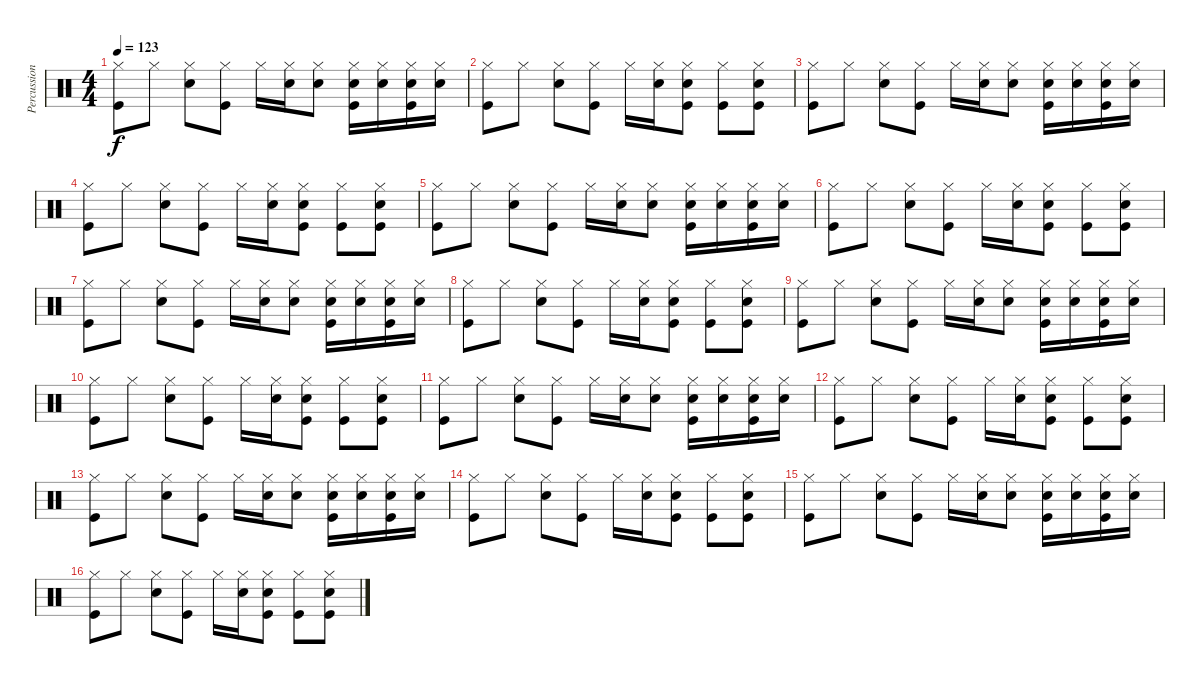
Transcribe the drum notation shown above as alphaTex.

\track ("Percussion" "Percussion") {instrument percussion}
\staff {score}
\articulation defaults
\ts (4 4)
\tempo 123
\clef neutral
\ks c
("Hi-Hat (closed)" "Kick (hit)").8{dy f} "Hi-Hat (closed)".8 ("Hi-Hat (closed)" "Snare (hit) 2").8 ("Hi-Hat (closed)" "Kick (hit)").8 "Hi-Hat (closed)".16 ("Hi-Hat (closed)" "Snare (hit) 2").16 ("Hi-Hat (closed)" "Snare (hit) 2").8 ("Hi-Hat (closed)" "Snare (hit) 2" "Kick (hit)").16 ("Hi-Hat (closed)" "Snare (hit) 2").16 ("Hi-Hat (closed)" "Snare (hit) 2" "Kick (hit)").16 ("Hi-Hat (closed)" "Snare (hit) 2").16 |
("Hi-Hat (closed)" "Kick (hit)").8 "Hi-Hat (closed)".8 ("Hi-Hat (closed)" "Snare (hit) 2").8 ("Hi-Hat (closed)" "Kick (hit)").8 "Hi-Hat (closed)".16 ("Hi-Hat (closed)" "Snare (hit) 2").16 ("Hi-Hat (closed)" "Snare (hit) 2" "Kick (hit)").8 ("Hi-Hat (closed)" "Kick (hit)").8 ("Hi-Hat (closed)" "Snare (hit) 2" "Kick (hit)").8 |
("Hi-Hat (closed)" "Kick (hit)").8 "Hi-Hat (closed)".8 ("Hi-Hat (closed)" "Snare (hit) 2").8 ("Hi-Hat (closed)" "Kick (hit)").8 "Hi-Hat (closed)".16 ("Hi-Hat (closed)" "Snare (hit) 2").16 ("Hi-Hat (closed)" "Snare (hit) 2").8 ("Hi-Hat (closed)" "Snare (hit) 2" "Kick (hit)").16 ("Hi-Hat (closed)" "Snare (hit) 2").16 ("Hi-Hat (closed)" "Snare (hit) 2" "Kick (hit)").16 ("Hi-Hat (closed)" "Snare (hit) 2").16 |
("Hi-Hat (closed)" "Kick (hit)").8 "Hi-Hat (closed)".8 ("Hi-Hat (closed)" "Snare (hit) 2").8 ("Hi-Hat (closed)" "Kick (hit)").8 "Hi-Hat (closed)".16 ("Hi-Hat (closed)" "Snare (hit) 2").16 ("Hi-Hat (closed)" "Snare (hit) 2" "Kick (hit)").8 ("Hi-Hat (closed)" "Kick (hit)").8 ("Hi-Hat (closed)" "Snare (hit) 2" "Kick (hit)").8 |
("Hi-Hat (closed)" "Kick (hit)").8 "Hi-Hat (closed)".8 ("Hi-Hat (closed)" "Snare (hit) 2").8 ("Hi-Hat (closed)" "Kick (hit)").8 "Hi-Hat (closed)".16 ("Hi-Hat (closed)" "Snare (hit) 2").16 ("Hi-Hat (closed)" "Snare (hit) 2").8 ("Hi-Hat (closed)" "Snare (hit) 2" "Kick (hit)").16 ("Hi-Hat (closed)" "Snare (hit) 2").16 ("Hi-Hat (closed)" "Snare (hit) 2" "Kick (hit)").16 ("Hi-Hat (closed)" "Snare (hit) 2").16 |
("Hi-Hat (closed)" "Kick (hit)").8 "Hi-Hat (closed)".8 ("Hi-Hat (closed)" "Snare (hit) 2").8 ("Hi-Hat (closed)" "Kick (hit)").8 "Hi-Hat (closed)".16 ("Hi-Hat (closed)" "Snare (hit) 2").16 ("Hi-Hat (closed)" "Snare (hit) 2" "Kick (hit)").8 ("Hi-Hat (closed)" "Kick (hit)").8 ("Hi-Hat (closed)" "Snare (hit) 2" "Kick (hit)").8 |
("Hi-Hat (closed)" "Kick (hit)").8 "Hi-Hat (closed)".8 ("Hi-Hat (closed)" "Snare (hit) 2").8 ("Hi-Hat (closed)" "Kick (hit)").8 "Hi-Hat (closed)".16 ("Hi-Hat (closed)" "Snare (hit) 2").16 ("Hi-Hat (closed)" "Snare (hit) 2").8 ("Hi-Hat (closed)" "Snare (hit) 2" "Kick (hit)").16 ("Hi-Hat (closed)" "Snare (hit) 2").16 ("Hi-Hat (closed)" "Snare (hit) 2" "Kick (hit)").16 ("Hi-Hat (closed)" "Snare (hit) 2").16 |
("Hi-Hat (closed)" "Kick (hit)").8 "Hi-Hat (closed)".8 ("Hi-Hat (closed)" "Snare (hit) 2").8 ("Hi-Hat (closed)" "Kick (hit)").8 "Hi-Hat (closed)".16 ("Hi-Hat (closed)" "Snare (hit) 2").16 ("Hi-Hat (closed)" "Snare (hit) 2" "Kick (hit)").8 ("Hi-Hat (closed)" "Kick (hit)").8 ("Hi-Hat (closed)" "Snare (hit) 2" "Kick (hit)").8 |
("Hi-Hat (closed)" "Kick (hit)").8 "Hi-Hat (closed)".8 ("Hi-Hat (closed)" "Snare (hit) 2").8 ("Hi-Hat (closed)" "Kick (hit)").8 "Hi-Hat (closed)".16 ("Hi-Hat (closed)" "Snare (hit) 2").16 ("Hi-Hat (closed)" "Snare (hit) 2").8 ("Hi-Hat (closed)" "Snare (hit) 2" "Kick (hit)").16 ("Hi-Hat (closed)" "Snare (hit) 2").16 ("Hi-Hat (closed)" "Snare (hit) 2" "Kick (hit)").16 ("Hi-Hat (closed)" "Snare (hit) 2").16 |
("Hi-Hat (closed)" "Kick (hit)").8 "Hi-Hat (closed)".8 ("Hi-Hat (closed)" "Snare (hit) 2").8 ("Hi-Hat (closed)" "Kick (hit)").8 "Hi-Hat (closed)".16 ("Hi-Hat (closed)" "Snare (hit) 2").16 ("Hi-Hat (closed)" "Snare (hit) 2" "Kick (hit)").8 ("Hi-Hat (closed)" "Kick (hit)").8 ("Hi-Hat (closed)" "Snare (hit) 2" "Kick (hit)").8 |
("Hi-Hat (closed)" "Kick (hit)").8 "Hi-Hat (closed)".8 ("Hi-Hat (closed)" "Snare (hit) 2").8 ("Hi-Hat (closed)" "Kick (hit)").8 "Hi-Hat (closed)".16 ("Hi-Hat (closed)" "Snare (hit) 2").16 ("Hi-Hat (closed)" "Snare (hit) 2").8 ("Hi-Hat (closed)" "Snare (hit) 2" "Kick (hit)").16 ("Hi-Hat (closed)" "Snare (hit) 2").16 ("Hi-Hat (closed)" "Snare (hit) 2" "Kick (hit)").16 ("Hi-Hat (closed)" "Snare (hit) 2").16 |
("Hi-Hat (closed)" "Kick (hit)").8 "Hi-Hat (closed)".8 ("Hi-Hat (closed)" "Snare (hit) 2").8 ("Hi-Hat (closed)" "Kick (hit)").8 "Hi-Hat (closed)".16 ("Hi-Hat (closed)" "Snare (hit) 2").16 ("Hi-Hat (closed)" "Snare (hit) 2" "Kick (hit)").8 ("Hi-Hat (closed)" "Kick (hit)").8 ("Hi-Hat (closed)" "Snare (hit) 2" "Kick (hit)").8 |
("Hi-Hat (closed)" "Kick (hit)").8 "Hi-Hat (closed)".8 ("Hi-Hat (closed)" "Snare (hit) 2").8 ("Hi-Hat (closed)" "Kick (hit)").8 "Hi-Hat (closed)".16 ("Hi-Hat (closed)" "Snare (hit) 2").16 ("Hi-Hat (closed)" "Snare (hit) 2").8 ("Hi-Hat (closed)" "Snare (hit) 2" "Kick (hit)").16 ("Hi-Hat (closed)" "Snare (hit) 2").16 ("Hi-Hat (closed)" "Snare (hit) 2" "Kick (hit)").16 ("Hi-Hat (closed)" "Snare (hit) 2").16 |
("Hi-Hat (closed)" "Kick (hit)").8 "Hi-Hat (closed)".8 ("Hi-Hat (closed)" "Snare (hit) 2").8 ("Hi-Hat (closed)" "Kick (hit)").8 "Hi-Hat (closed)".16 ("Hi-Hat (closed)" "Snare (hit) 2").16 ("Hi-Hat (closed)" "Snare (hit) 2" "Kick (hit)").8 ("Hi-Hat (closed)" "Kick (hit)").8 ("Hi-Hat (closed)" "Snare (hit) 2" "Kick (hit)").8 |
("Hi-Hat (closed)" "Kick (hit)").8 "Hi-Hat (closed)".8 ("Hi-Hat (closed)" "Snare (hit) 2").8 ("Hi-Hat (closed)" "Kick (hit)").8 "Hi-Hat (closed)".16 ("Hi-Hat (closed)" "Snare (hit) 2").16 ("Hi-Hat (closed)" "Snare (hit) 2").8 ("Hi-Hat (closed)" "Snare (hit) 2" "Kick (hit)").16 ("Hi-Hat (closed)" "Snare (hit) 2").16 ("Hi-Hat (closed)" "Snare (hit) 2" "Kick (hit)").16 ("Hi-Hat (closed)" "Snare (hit) 2").16 |
("Hi-Hat (closed)" "Kick (hit)").8 "Hi-Hat (closed)".8 ("Hi-Hat (closed)" "Snare (hit) 2").8 ("Hi-Hat (closed)" "Kick (hit)").8 "Hi-Hat (closed)".16 ("Hi-Hat (closed)" "Snare (hit) 2").16 ("Hi-Hat (closed)" "Snare (hit) 2" "Kick (hit)").8 ("Hi-Hat (closed)" "Kick (hit)").8 ("Hi-Hat (closed)" "Snare (hit) 2" "Kick (hit)").8
